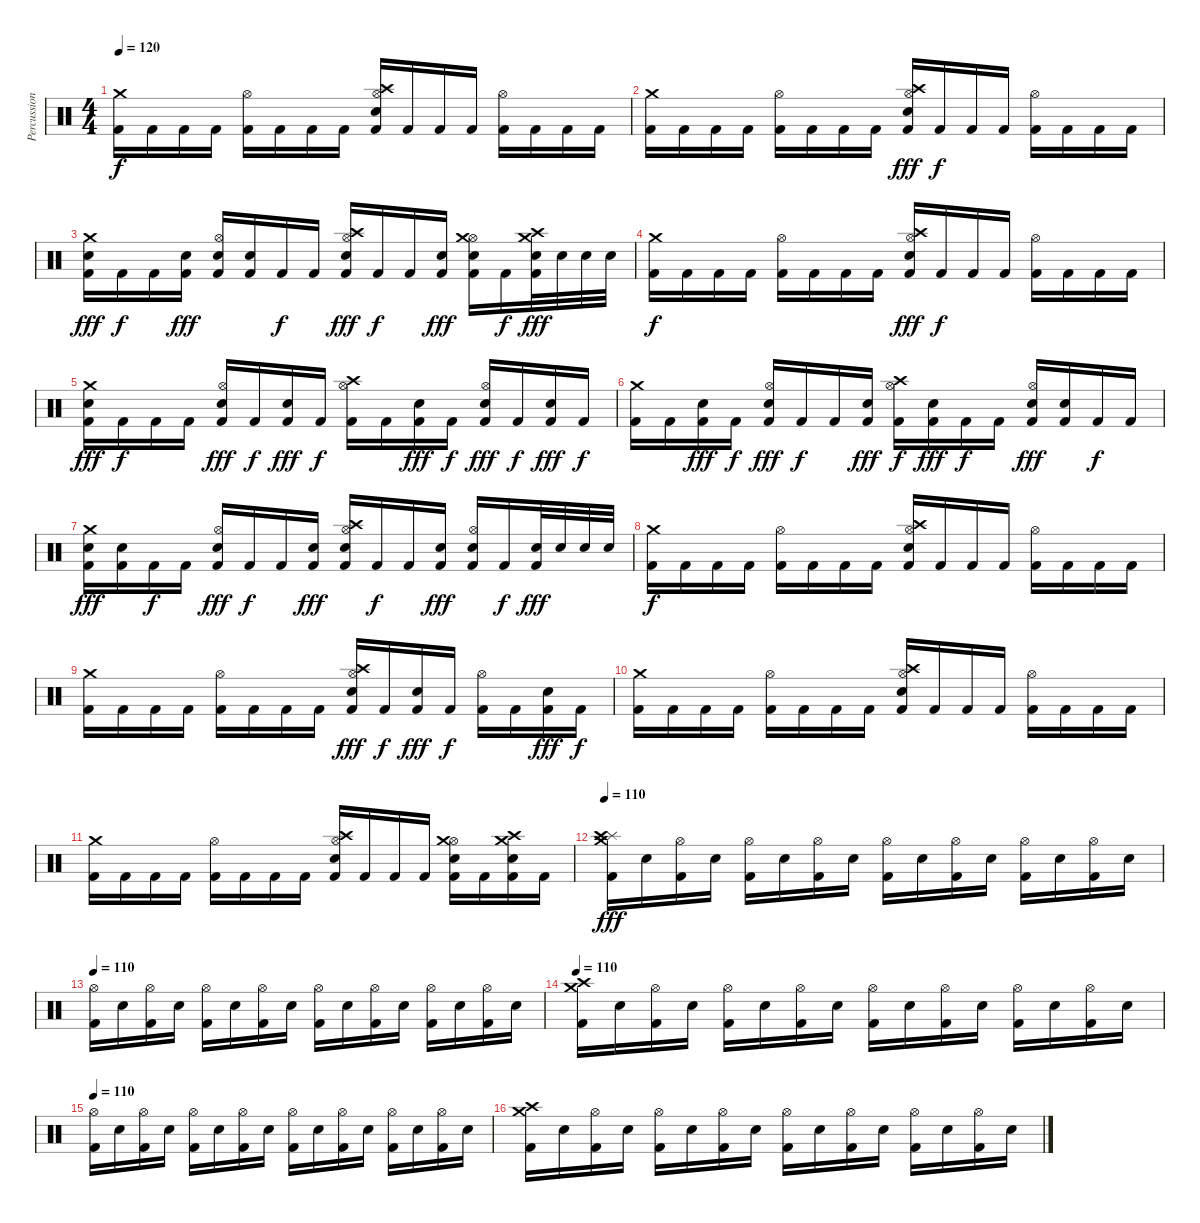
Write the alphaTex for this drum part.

\track ("Percussion" "Percussion") {instrument percussion}
\staff
\articulation defaults
\ts (4 4)
\tempo 120
\clef neutral
\ks c
("Crash medium (hit)" "Kick (hit) 2").16{dy f} "Kick (hit) 2".16 "Kick (hit) 2".16 "Kick (hit) 2".16 ("Hi-Hat (open)" "Kick (hit) 2").16 "Kick (hit) 2".16 "Kick (hit) 2".16 "Kick (hit) 2".16 ("Hi-Hat (open)" "Crash high (hit)" "Snare (hit) 2" "Kick (hit) 2").16 "Kick (hit) 2".16 "Kick (hit) 2".16 "Kick (hit) 2".16 ("Hi-Hat (open)" "Kick (hit) 2").16 "Kick (hit) 2".16 "Kick (hit) 2".16 "Kick (hit) 2".16 |
("Crash medium (hit)" "Kick (hit) 2").16 "Kick (hit) 2".16 "Kick (hit) 2".16 "Kick (hit) 2".16 ("Hi-Hat (open)" "Kick (hit) 2").16 "Kick (hit) 2".16 "Kick (hit) 2".16 "Kick (hit) 2".16 ("Hi-Hat (open)" "Crash high (hit)" "Snare (hit) 2" "Kick (hit) 2").16{dy fff} "Kick (hit) 2".16{dy f} "Kick (hit) 2".16 "Kick (hit) 2".16 ("Hi-Hat (open)" "Kick (hit) 2").16 "Kick (hit) 2".16 "Kick (hit) 2".16 "Kick (hit) 2".16 |
("Crash medium (hit)" "Snare (hit) 2" "Kick (hit) 2").16{dy fff} "Kick (hit) 2".16{dy f} "Kick (hit) 2".16 ("Snare (hit) 2" "Kick (hit) 2").16{dy fff} ("Hi-Hat (open)" "Snare (hit) 2" "Kick (hit) 2").16 ("Snare (hit) 2" "Kick (hit) 2").16 "Kick (hit) 2".16{dy f} "Kick (hit) 2".16 ("Hi-Hat (open)" "Crash high (hit)" "Snare (hit) 2" "Kick (hit) 2").16{dy fff} "Kick (hit) 2".16{dy f} "Kick (hit) 2".16 ("Snare (hit) 2" "Kick (hit) 2").16{dy fff} ("Hi-Hat (open)" "Crash medium (hit)" "Snare (hit) 2" "Kick (hit) 2").16 "Kick (hit) 2".16{dy f} ("Crash high (hit)" "Crash medium (hit)" "Snare (hit) 2" "Kick (hit) 2").32{dy fff} "Snare (hit) 2".32 "Snare (hit) 2".32 "Snare (hit) 2".32 |
("Crash medium (hit)" "Kick (hit) 2").16{dy f} "Kick (hit) 2".16 "Kick (hit) 2".16 "Kick (hit) 2".16 ("Hi-Hat (open)" "Kick (hit) 2").16 "Kick (hit) 2".16 "Kick (hit) 2".16 "Kick (hit) 2".16 ("Hi-Hat (open)" "Crash high (hit)" "Snare (hit) 2" "Kick (hit) 2").16{dy fff} "Kick (hit) 2".16{dy f} "Kick (hit) 2".16 "Kick (hit) 2".16 ("Hi-Hat (open)" "Kick (hit) 2").16 "Kick (hit) 2".16 "Kick (hit) 2".16 "Kick (hit) 2".16 |
("Crash medium (hit)" "Snare (hit) 2" "Kick (hit) 2").16{dy fff} "Kick (hit) 2".16{dy f} "Kick (hit) 2".16 "Kick (hit) 2".16 ("Hi-Hat (open)" "Snare (hit) 2" "Kick (hit) 2").16{dy fff} "Kick (hit) 2".16{dy f} ("Snare (hit) 2" "Kick (hit) 2").16{dy fff} "Kick (hit) 2".16{dy f} ("Hi-Hat (open)" "Crash high (hit)" "Kick (hit) 2").16 "Kick (hit) 2".16 ("Snare (hit) 2" "Kick (hit) 2").16{dy fff} "Kick (hit) 2".16{dy f} ("Hi-Hat (open)" "Snare (hit) 2" "Kick (hit) 2").16{dy fff} "Kick (hit) 2".16{dy f} ("Snare (hit) 2" "Kick (hit) 2").16{dy fff} "Kick (hit) 2".16{dy f} |
("Crash medium (hit)" "Kick (hit) 2").16 "Kick (hit) 2".16 ("Snare (hit) 2" "Kick (hit) 2").16{dy fff} "Kick (hit) 2".16{dy f} ("Hi-Hat (open)" "Snare (hit) 2" "Kick (hit) 2").16{dy fff} "Kick (hit) 2".16{dy f} "Kick (hit) 2".16 ("Snare (hit) 2" "Kick (hit) 2").16{dy fff} ("Hi-Hat (open)" "Crash high (hit)" "Kick (hit) 2").16{dy f} ("Snare (hit) 2" "Kick (hit) 2").16{dy fff} "Kick (hit) 2".16{dy f} "Kick (hit) 2".16 ("Hi-Hat (open)" "Snare (hit) 2" "Kick (hit) 2").16{dy fff} ("Snare (hit) 2" "Kick (hit) 2").16 "Kick (hit) 2".16{dy f} "Kick (hit) 2".16 |
("Crash medium (hit)" "Snare (hit) 2" "Kick (hit) 2").16{dy fff} ("Snare (hit) 2" "Kick (hit) 2").16 "Kick (hit) 2".16{dy f} "Kick (hit) 2".16 ("Hi-Hat (open)" "Snare (hit) 2" "Kick (hit) 2").16{dy fff} "Kick (hit) 2".16{dy f} "Kick (hit) 2".16 ("Snare (hit) 2" "Kick (hit) 2").16{dy fff} ("Hi-Hat (open)" "Crash high (hit)" "Snare (hit) 2" "Kick (hit) 2").16 "Kick (hit) 2".16{dy f} "Kick (hit) 2".16 ("Snare (hit) 2" "Kick (hit) 2").16{dy fff} ("Hi-Hat (open)" "Snare (hit) 2" "Kick (hit) 2").16 "Kick (hit) 2".16{dy f} ("Snare (hit) 2" "Kick (hit) 2").32{dy fff} "Snare (hit) 2".32 "Snare (hit) 2".32 "Snare (hit) 2".32 |
("Crash medium (hit)" "Kick (hit) 2").16{dy f} "Kick (hit) 2".16 "Kick (hit) 2".16 "Kick (hit) 2".16 ("Hi-Hat (open)" "Kick (hit) 2").16 "Kick (hit) 2".16 "Kick (hit) 2".16 "Kick (hit) 2".16 ("Hi-Hat (open)" "Crash high (hit)" "Snare (hit) 2" "Kick (hit) 2").16 "Kick (hit) 2".16 "Kick (hit) 2".16 "Kick (hit) 2".16 ("Hi-Hat (open)" "Kick (hit) 2").16 "Kick (hit) 2".16 "Kick (hit) 2".16 "Kick (hit) 2".16 |
("Crash medium (hit)" "Kick (hit) 2").16 "Kick (hit) 2".16 "Kick (hit) 2".16 "Kick (hit) 2".16 ("Hi-Hat (open)" "Kick (hit) 2").16 "Kick (hit) 2".16 "Kick (hit) 2".16 "Kick (hit) 2".16 ("Hi-Hat (open)" "Crash high (hit)" "Snare (hit) 2" "Kick (hit) 2").16{dy fff} "Kick (hit) 2".16{dy f} ("Snare (hit) 2" "Kick (hit) 2").16{dy fff} "Kick (hit) 2".16{dy f} ("Hi-Hat (open)" "Kick (hit) 2").16 "Kick (hit) 2".16 ("Snare (hit) 2" "Kick (hit) 2").16{dy fff} "Kick (hit) 2".16{dy f} |
("Crash medium (hit)" "Kick (hit) 2").16 "Kick (hit) 2".16 "Kick (hit) 2".16 "Kick (hit) 2".16 ("Hi-Hat (open)" "Kick (hit) 2").16 "Kick (hit) 2".16 "Kick (hit) 2".16 "Kick (hit) 2".16 ("Hi-Hat (open)" "Crash high (hit)" "Snare (hit) 2" "Kick (hit) 2").16 "Kick (hit) 2".16 "Kick (hit) 2".16 "Kick (hit) 2".16 ("Hi-Hat (open)" "Kick (hit) 2").16 "Kick (hit) 2".16 "Kick (hit) 2".16 "Kick (hit) 2".16 |
("Crash medium (hit)" "Kick (hit) 2").16 "Kick (hit) 2".16 "Kick (hit) 2".16 "Kick (hit) 2".16 ("Hi-Hat (open)" "Kick (hit) 2").16 "Kick (hit) 2".16 "Kick (hit) 2".16 "Kick (hit) 2".16 ("Hi-Hat (open)" "Crash high (hit)" "Snare (hit) 2" "Kick (hit) 2").16 "Kick (hit) 2".16 "Kick (hit) 2".16 "Kick (hit) 2".16 ("Hi-Hat (open)" "Crash medium (hit)" "Snare (hit) 2" "Kick (hit) 2").16 "Kick (hit) 2".16 ("Crash high (hit)" "Crash medium (hit)" "Snare (hit) 2" "Kick (hit) 2").16 "Kick (hit) 2".16 |
\tempo 110
("Splash (hit)" "Crash high (hit)" "Crash medium (hit)" "Kick (hit) 2").16{dy fff} "Snare (hit) 2".16 ("Hi-Hat (open)" "Kick (hit) 2").16 "Snare (hit) 2".16 ("Hi-Hat (open)" "Kick (hit) 2").16 "Snare (hit) 2".16 ("Hi-Hat (open)" "Kick (hit) 2").16 "Snare (hit) 2".16 ("Hi-Hat (open)" "Kick (hit) 2").16 "Snare (hit) 2".16 ("Hi-Hat (open)" "Kick (hit) 2").16 "Snare (hit) 2".16 ("Hi-Hat (open)" "Kick (hit) 2").16 "Snare (hit) 2".16 ("Hi-Hat (open)" "Kick (hit) 2").16 "Snare (hit) 2".16 |
\tempo 110
("Hi-Hat (open)" "Kick (hit) 2").16 "Snare (hit) 2".16 ("Hi-Hat (open)" "Kick (hit) 2").16 "Snare (hit) 2".16 ("Hi-Hat (open)" "Kick (hit) 2").16 "Snare (hit) 2".16 ("Hi-Hat (open)" "Kick (hit) 2").16 "Snare (hit) 2".16 ("Hi-Hat (open)" "Kick (hit) 2").16 "Snare (hit) 2".16 ("Hi-Hat (open)" "Kick (hit) 2").16 "Snare (hit) 2".16 ("Hi-Hat (open)" "Kick (hit) 2").16 "Snare (hit) 2".16 ("Hi-Hat (open)" "Kick (hit) 2").16 "Snare (hit) 2".16 |
\tempo 110
("Crash high (hit)" "Crash medium (hit)" "Kick (hit) 2").16 "Snare (hit) 2".16 ("Hi-Hat (open)" "Kick (hit) 2").16 "Snare (hit) 2".16 ("Hi-Hat (open)" "Kick (hit) 2").16 "Snare (hit) 2".16 ("Hi-Hat (open)" "Kick (hit) 2").16 "Snare (hit) 2".16 ("Hi-Hat (open)" "Kick (hit) 2").16 "Snare (hit) 2".16 ("Hi-Hat (open)" "Kick (hit) 2").16 "Snare (hit) 2".16 ("Hi-Hat (open)" "Kick (hit) 2").16 "Snare (hit) 2".16 ("Hi-Hat (open)" "Kick (hit) 2").16 "Snare (hit) 2".16 |
\tempo 110
("Hi-Hat (open)" "Kick (hit) 2").16 "Snare (hit) 2".16 ("Hi-Hat (open)" "Kick (hit) 2").16 "Snare (hit) 2".16 ("Hi-Hat (open)" "Kick (hit) 2").16 "Snare (hit) 2".16 ("Hi-Hat (open)" "Kick (hit) 2").16 "Snare (hit) 2".16 ("Hi-Hat (open)" "Kick (hit) 2").16 "Snare (hit) 2".16 ("Hi-Hat (open)" "Kick (hit) 2").16 "Snare (hit) 2".16 ("Hi-Hat (open)" "Kick (hit) 2").16 "Snare (hit) 2".16 ("Hi-Hat (open)" "Kick (hit) 2").16 "Snare (hit) 2".16 |
("Crash medium (hit)" "Crash high (hit)" "Kick (hit) 2").16 "Snare (hit) 2".16 ("Hi-Hat (open)" "Kick (hit) 2").16 "Snare (hit) 2".16 ("Hi-Hat (open)" "Kick (hit) 2").16 "Snare (hit) 2".16 ("Hi-Hat (open)" "Kick (hit) 2").16 "Snare (hit) 2".16 ("Hi-Hat (open)" "Kick (hit) 2").16 "Snare (hit) 2".16 ("Hi-Hat (open)" "Kick (hit) 2").16 "Snare (hit) 2".16 ("Hi-Hat (open)" "Kick (hit) 2").16 "Snare (hit) 2".16 ("Hi-Hat (open)" "Kick (hit) 2").16 "Snare (hit) 2".16
